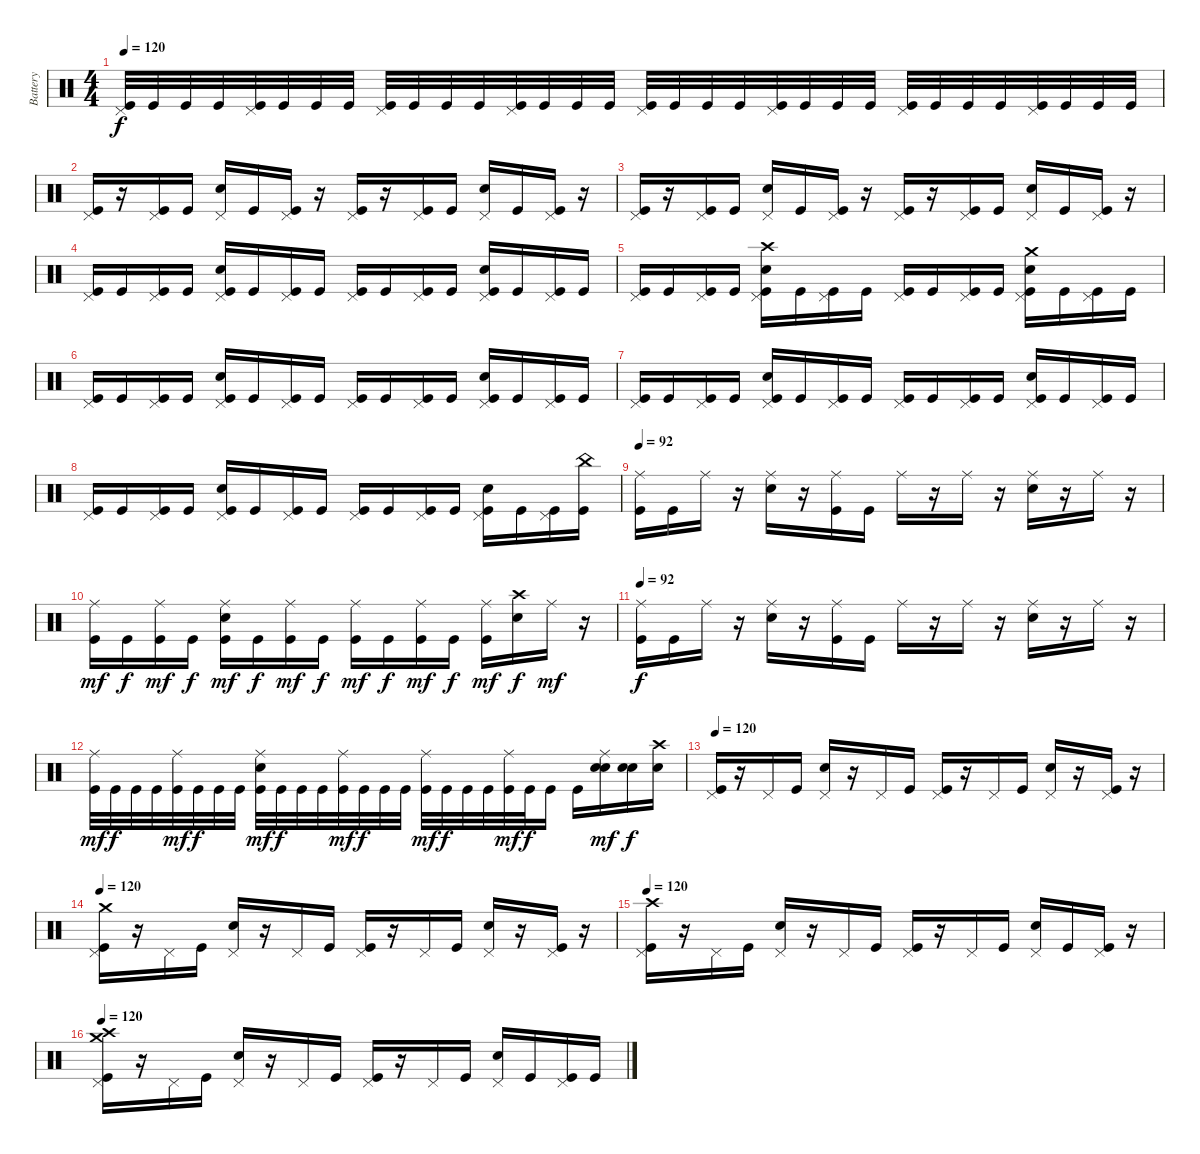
\track ("Battery" "Battery") {instrument percussion}
\staff {score}
\articulation defaults
\ts (4 4)
\tempo 120
\clef neutral
\ks c
("Pedal Hi-Hat (hit)" "Kick (hit)").32{dy f} "Kick (hit)".32 "Kick (hit)".32 "Kick (hit)".32 ("Pedal Hi-Hat (hit)" "Kick (hit)").32 "Kick (hit)".32 "Kick (hit)".32 "Kick (hit)".32 ("Pedal Hi-Hat (hit)" "Kick (hit)").32 "Kick (hit)".32 "Kick (hit)".32 "Kick (hit)".32 ("Pedal Hi-Hat (hit)" "Kick (hit)").32 "Kick (hit)".32 "Kick (hit)".32 "Kick (hit)".32 ("Pedal Hi-Hat (hit)" "Kick (hit)").32 "Kick (hit)".32 "Kick (hit)".32 "Kick (hit)".32 ("Pedal Hi-Hat (hit)" "Kick (hit)").32 "Kick (hit)".32 "Kick (hit)".32 "Kick (hit)".32 ("Pedal Hi-Hat (hit)" "Kick (hit)").32 "Kick (hit)".32 "Kick (hit)".32 "Kick (hit)".32 ("Pedal Hi-Hat (hit)" "Kick (hit)").32 "Kick (hit)".32 "Kick (hit)".32 "Kick (hit)".32 |
("Pedal Hi-Hat (hit)" "Kick (hit)").16 r.16 ("Pedal Hi-Hat (hit)" "Kick (hit)").16 "Kick (hit)".16 ("Pedal Hi-Hat (hit)" "Snare (hit) 2").16 "Kick (hit)".16 ("Pedal Hi-Hat (hit)" "Kick (hit)").16 r.16 ("Pedal Hi-Hat (hit)" "Kick (hit)").16 r.16 ("Pedal Hi-Hat (hit)" "Kick (hit)").16 "Kick (hit)".16 ("Pedal Hi-Hat (hit)" "Snare (hit) 2").16 "Kick (hit)".16 ("Pedal Hi-Hat (hit)" "Kick (hit)").16 r.16 |
("Pedal Hi-Hat (hit)" "Kick (hit)").16 r.16 ("Pedal Hi-Hat (hit)" "Kick (hit)").16 "Kick (hit)".16 ("Pedal Hi-Hat (hit)" "Snare (hit) 2").16 "Kick (hit)".16 ("Pedal Hi-Hat (hit)" "Kick (hit)").16 r.16 ("Pedal Hi-Hat (hit)" "Kick (hit)").16 r.16 ("Pedal Hi-Hat (hit)" "Kick (hit)").16 "Kick (hit)".16 ("Pedal Hi-Hat (hit)" "Snare (hit) 2").16 "Kick (hit)".16 ("Pedal Hi-Hat (hit)" "Kick (hit)").16 r.16 |
("Pedal Hi-Hat (hit)" "Kick (hit)").16 "Kick (hit)".16 ("Pedal Hi-Hat (hit)" "Kick (hit)").16 "Kick (hit)".16 ("Pedal Hi-Hat (hit)" "Kick (hit)" "Snare (hit) 2").16 "Kick (hit)".16 ("Pedal Hi-Hat (hit)" "Kick (hit)").16 "Kick (hit)".16 ("Pedal Hi-Hat (hit)" "Kick (hit)").16 "Kick (hit)".16 ("Pedal Hi-Hat (hit)" "Kick (hit)").16 "Kick (hit)".16 ("Pedal Hi-Hat (hit)" "Kick (hit)" "Snare (hit) 2").16 "Kick (hit)".16 ("Pedal Hi-Hat (hit)" "Kick (hit)").16 "Kick (hit)".16 |
("Pedal Hi-Hat (hit)" "Kick (hit)").16 "Kick (hit)".16 ("Pedal Hi-Hat (hit)" "Kick (hit)").16 "Kick (hit)".16 ("Pedal Hi-Hat (hit)" "Kick (hit)" "Snare (hit) 2" "Crash high (hit)").16 "Kick (hit)".16 ("Pedal Hi-Hat (hit)" "Kick (hit)").16 "Kick (hit)".16 ("Pedal Hi-Hat (hit)" "Kick (hit)").16 "Kick (hit)".16 ("Pedal Hi-Hat (hit)" "Kick (hit)").16 "Kick (hit)".16 ("Pedal Hi-Hat (hit)" "Kick (hit)" "Snare (hit) 2" "Crash medium (hit)").16 "Kick (hit)".16 ("Pedal Hi-Hat (hit)" "Kick (hit)").16 "Kick (hit)".16 |
("Pedal Hi-Hat (hit)" "Kick (hit)").16 "Kick (hit)".16 ("Pedal Hi-Hat (hit)" "Kick (hit)").16 "Kick (hit)".16 ("Pedal Hi-Hat (hit)" "Kick (hit)" "Snare (hit) 2").16 "Kick (hit)".16 ("Pedal Hi-Hat (hit)" "Kick (hit)").16 "Kick (hit)".16 ("Pedal Hi-Hat (hit)" "Kick (hit)").16 "Kick (hit)".16 ("Pedal Hi-Hat (hit)" "Kick (hit)").16 "Kick (hit)".16 ("Pedal Hi-Hat (hit)" "Kick (hit)" "Snare (hit) 2").16 "Kick (hit)".16 ("Pedal Hi-Hat (hit)" "Kick (hit)").16 "Kick (hit)".16 |
("Pedal Hi-Hat (hit)" "Kick (hit)").16 "Kick (hit)".16 ("Pedal Hi-Hat (hit)" "Kick (hit)").16 "Kick (hit)".16 ("Pedal Hi-Hat (hit)" "Kick (hit)" "Snare (hit) 2").16 "Kick (hit)".16 ("Pedal Hi-Hat (hit)" "Kick (hit)").16 "Kick (hit)".16 ("Pedal Hi-Hat (hit)" "Kick (hit)").16 "Kick (hit)".16 ("Pedal Hi-Hat (hit)" "Kick (hit)").16 "Kick (hit)".16 ("Pedal Hi-Hat (hit)" "Kick (hit)" "Snare (hit) 2").16 "Kick (hit)".16 ("Pedal Hi-Hat (hit)" "Kick (hit)").16 "Kick (hit)".16 |
("Pedal Hi-Hat (hit)" "Kick (hit)").16 "Kick (hit)".16 ("Pedal Hi-Hat (hit)" "Kick (hit)").16 "Kick (hit)".16 ("Pedal Hi-Hat (hit)" "Kick (hit)" "Snare (hit) 2").16 "Kick (hit)".16 ("Pedal Hi-Hat (hit)" "Kick (hit)").16 "Kick (hit)".16 ("Pedal Hi-Hat (hit)" "Kick (hit)").16 "Kick (hit)".16 ("Pedal Hi-Hat (hit)" "Kick (hit)").16 "Kick (hit)".16 ("Pedal Hi-Hat (hit)" "Kick (hit)" "Snare (hit) 2").16 "Kick (hit)".16 ("Pedal Hi-Hat (hit)" "Kick (hit)").16 ("Kick (hit)" "China (hit)").16 |
\tempo 92
("Ride (middle)" "Kick (hit)").16 "Kick (hit)".16 "Ride (middle)".16 r.16 ("Ride (middle)" "Snare (hit) 2").16 r.16 ("Ride (middle)" "Kick (hit)").16 "Kick (hit)".16 "Ride (middle)".16 r.16 "Ride (middle)".16 r.16 ("Ride (middle)" "Snare (hit) 2").16 r.16 "Ride (middle)".16 r.16 |
("Ride (middle)" "Kick (hit)").16{dy mf} "Kick (hit)".16{dy f} ("Ride (middle)" "Kick (hit)").16{dy mf} "Kick (hit)".16{dy f} ("Ride (middle)" "Kick (hit)" "Snare (hit) 2").16{dy mf} "Kick (hit)".16{dy f} ("Ride (middle)" "Kick (hit)").16{dy mf} "Kick (hit)".16{dy f} ("Ride (middle)" "Kick (hit)").16{dy mf} "Kick (hit)".16{dy f} ("Ride (middle)" "Kick (hit)").16{dy mf} "Kick (hit)".16{dy f} ("Ride (middle)" "Kick (hit)").16{dy mf} ("Snare (hit) 2" "Crash high (hit)").16{dy f} "Ride (middle)".16{dy mf} r.16 |
\tempo 92
("Ride (middle)" "Kick (hit)").16{dy f} "Kick (hit)".16 "Ride (middle)".16 r.16 ("Ride (middle)" "Snare (hit) 2").16 r.16 ("Ride (middle)" "Kick (hit)").16 "Kick (hit)".16 "Ride (middle)".16 r.16 "Ride (middle)".16 r.16 ("Ride (middle)" "Snare (hit) 2").16 r.16 "Ride (middle)".16 r.16 |
("Ride (middle)" "Kick (hit)").32{dy mf} "Kick (hit)".32{dy f} "Kick (hit)".32 "Kick (hit)".32 ("Ride (middle)" "Kick (hit)").32{dy mf} "Kick (hit)".32{dy f} "Kick (hit)".32 "Kick (hit)".32 ("Ride (middle)" "Kick (hit)" "Snare (hit) 2").32{dy mf} "Kick (hit)".32{dy f} "Kick (hit)".32 "Kick (hit)".32 ("Ride (middle)" "Kick (hit)").32{dy mf} "Kick (hit)".32{dy f} "Kick (hit)".32 "Kick (hit)".32 ("Ride (middle)" "Kick (hit)").32{dy mf} "Kick (hit)".32{dy f} "Kick (hit)".32 "Kick (hit)".32 ("Ride (middle)" "Kick (hit)").32{dy mf} "Kick (hit)".32{dy f} "Kick (hit)".16 "Kick (hit)".16 ("Ride (middle)" "Snare (hit) 2" "Snare (hit) 2").16{dy mf} ("Snare (hit) 2" "Snare (hit) 2").16{dy f} ("Snare (hit) 2" "Crash high (hit)").16 |
\tempo 120
("Pedal Hi-Hat (hit)" "Kick (hit)").16 r.16 "Pedal Hi-Hat (hit)".16 "Kick (hit)".16 ("Pedal Hi-Hat (hit)" "Snare (hit) 2").16 r.16 "Pedal Hi-Hat (hit)".16 "Kick (hit)".16 ("Pedal Hi-Hat (hit)" "Kick (hit)").16 r.16 "Pedal Hi-Hat (hit)".16 "Kick (hit)".16 ("Pedal Hi-Hat (hit)" "Snare (hit) 2").16 r.16 ("Pedal Hi-Hat (hit)" "Kick (hit)").16 r.16 |
\tempo 120
("Pedal Hi-Hat (hit)" "Kick (hit)" "Crash medium (hit)").16 r.16 "Pedal Hi-Hat (hit)".16 "Kick (hit)".16 ("Pedal Hi-Hat (hit)" "Snare (hit) 2").16 r.16 "Pedal Hi-Hat (hit)".16 "Kick (hit)".16 ("Pedal Hi-Hat (hit)" "Kick (hit)").16 r.16 "Pedal Hi-Hat (hit)".16 "Kick (hit)".16 ("Pedal Hi-Hat (hit)" "Snare (hit) 2").16 r.16 ("Pedal Hi-Hat (hit)" "Kick (hit)").16 r.16 |
\tempo 120
("Pedal Hi-Hat (hit)" "Kick (hit)" "Crash high (hit)").16 r.16 "Pedal Hi-Hat (hit)".16 "Kick (hit)".16 ("Pedal Hi-Hat (hit)" "Snare (hit) 2").16 r.16 "Pedal Hi-Hat (hit)".16 "Kick (hit)".16 ("Pedal Hi-Hat (hit)" "Kick (hit)").16 r.16 "Pedal Hi-Hat (hit)".16 "Kick (hit)".16 ("Pedal Hi-Hat (hit)" "Snare (hit) 2").16 "Kick (hit)".16 ("Pedal Hi-Hat (hit)" "Kick (hit)").16 r.16 |
\tempo 120
("Pedal Hi-Hat (hit)" "Kick (hit)" "Crash high (hit)" "Crash medium (hit)").16 r.16 "Pedal Hi-Hat (hit)".16 "Kick (hit)".16 ("Pedal Hi-Hat (hit)" "Snare (hit) 2").16 r.16 "Pedal Hi-Hat (hit)".16 "Kick (hit)".16 ("Pedal Hi-Hat (hit)" "Kick (hit)").16 r.16 "Pedal Hi-Hat (hit)".16 "Kick (hit)".16 ("Pedal Hi-Hat (hit)" "Snare (hit) 2").16 "Kick (hit)".16 ("Pedal Hi-Hat (hit)" "Kick (hit)").16 "Kick (hit)".16
